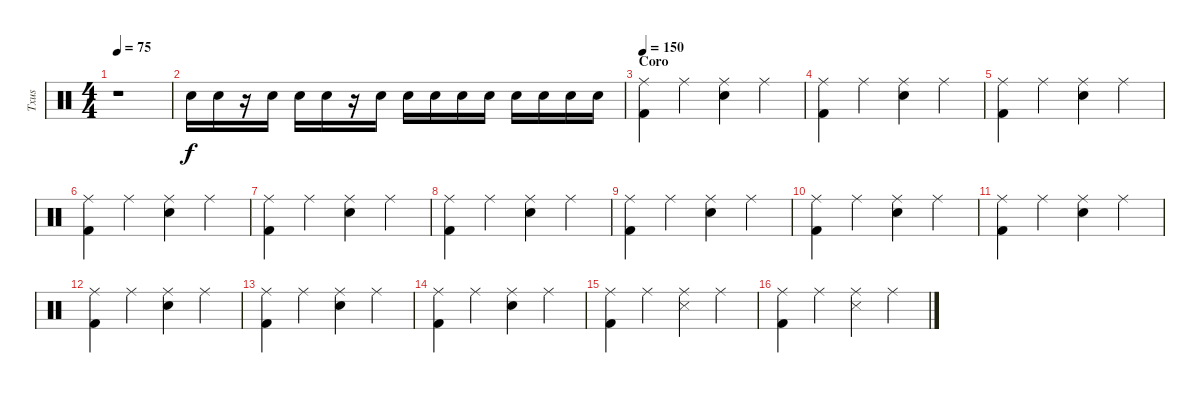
\track ("Txus" "Txus") {instrument percussion}
\staff {score}
\articulation defaults
\ts (4 4)
\tempo 75
\clef neutral
\ks c
r.1{dy f} |
"Snare (hit) 2".16 "Snare (hit) 2".16 r.16 "Snare (hit) 2".16 "Snare (hit) 2".16 "Snare (hit) 2".16 r.16 "Snare (hit) 2".16 "Snare (hit) 2".16 "Snare (hit) 2".16 "Snare (hit) 2".16 "Snare (hit) 2".16 "Snare (hit) 2".16 "Snare (hit) 2".16 "Snare (hit) 2".16 "Snare (hit) 2".16 |
\section ("" "Coro")
\tempo 150
("Ride (middle)" "Kick (hit) 2").4 "Ride (middle)".4 ("Snare (hit) 2" "Ride (middle)").4 "Ride (middle)".4 |
("Ride (middle)" "Kick (hit) 2").4 "Ride (middle)".4 ("Snare (hit) 2" "Ride (middle)").4 "Ride (middle)".4 |
("Ride (middle)" "Kick (hit) 2").4 "Ride (middle)".4 ("Snare (hit) 2" "Ride (middle)").4 "Ride (middle)".4 |
("Ride (middle)" "Kick (hit) 2").4 "Ride (middle)".4 ("Snare (hit) 2" "Ride (middle)").4 "Ride (middle)".4 |
("Ride (middle)" "Kick (hit) 2").4 "Ride (middle)".4 ("Snare (hit) 2" "Ride (middle)").4 "Ride (middle)".4 |
("Ride (middle)" "Kick (hit) 2").4 "Ride (middle)".4 ("Snare (hit) 2" "Ride (middle)").4 "Ride (middle)".4 |
("Ride (middle)" "Kick (hit) 2").4 "Ride (middle)".4 ("Snare (hit) 2" "Ride (middle)").4 "Ride (middle)".4 |
("Ride (middle)" "Kick (hit) 2").4 "Ride (middle)".4 ("Snare (hit) 2" "Ride (middle)").4 "Ride (middle)".4 |
("Ride (middle)" "Kick (hit) 2").4 "Ride (middle)".4 ("Snare (hit) 2" "Ride (middle)").4 "Ride (middle)".4 |
("Ride (middle)" "Kick (hit) 2").4 "Ride (middle)".4 ("Snare (hit) 2" "Ride (middle)").4 "Ride (middle)".4 |
("Ride (middle)" "Kick (hit) 2").4 "Ride (middle)".4 ("Snare (hit) 2" "Ride (middle)").4 "Ride (middle)".4 |
("Ride (middle)" "Kick (hit) 2").4 "Ride (middle)".4 ("Snare (hit) 2" "Ride (middle)").4 "Ride (middle)".4 |
("Ride (middle)" "Kick (hit) 2").4 "Ride (middle)".4 ("Snare (side stick) 3" "Ride (middle)").4 "Ride (middle)".4 |
("Kick (hit) 2" "Ride (middle)").4 "Ride (middle)".4 ("Snare (side stick) 3" "Ride (middle)").4 "Ride (middle)".4
